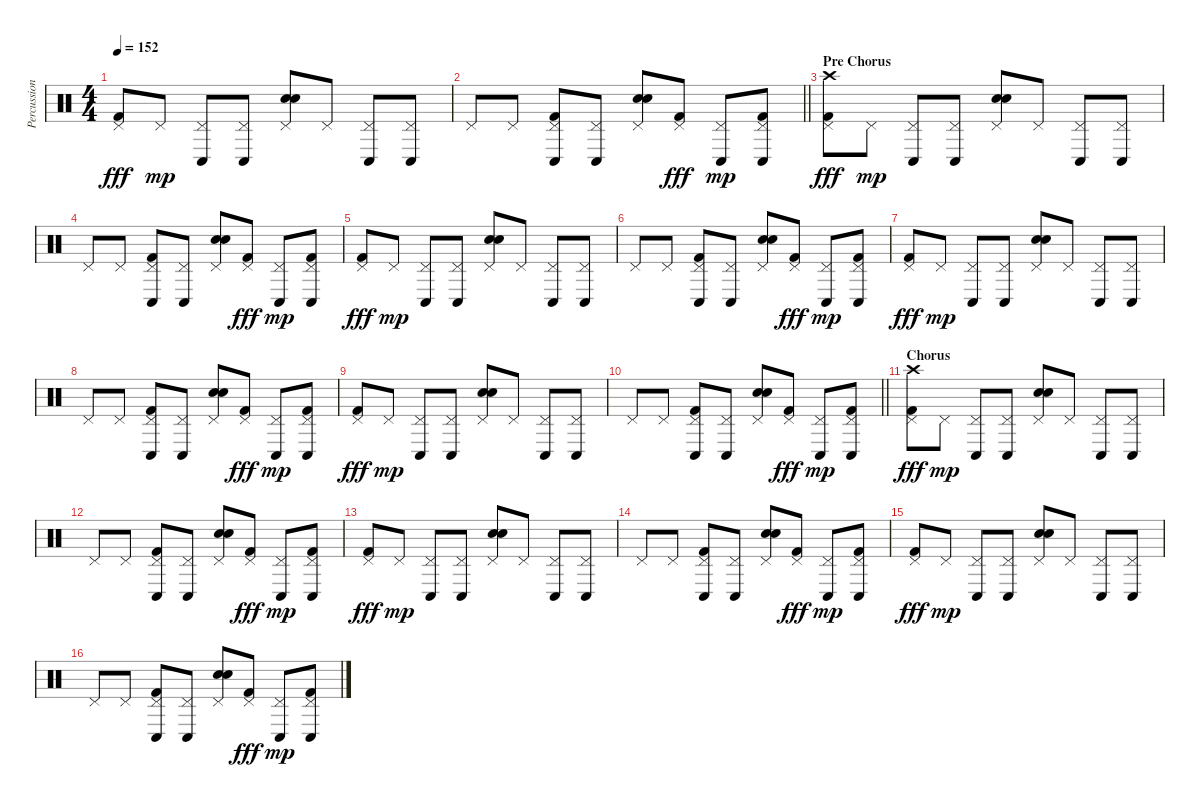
\track ("Percussion" "Percussion") {instrument percussion}
\staff {score}
\articulation defaults
\ts (4 4)
\tempo 152
\clef neutral
\ks c
("Pedal Hi-Hat (hit)" "Kick (hit) 2").8{dy fff} "Pedal Hi-Hat (hit)".8{dy mp} ("Pedal Hi-Hat (hit)" "Conga low (hit)").8 ("Pedal Hi-Hat (hit)" "Conga low (hit)").8 ("Pedal Hi-Hat (hit)" "Electric Snare (hit)" "Hand Clap (hit)").8 "Pedal Hi-Hat (hit)".8 ("Pedal Hi-Hat (hit)" "Conga low (hit)").8 ("Pedal Hi-Hat (hit)" "Conga low (hit)").8 |
\barLineRight lightlight "Pedal Hi-Hat (hit)".8 "Pedal Hi-Hat (hit)".8
("Pedal Hi-Hat (hit)" "Kick (hit) 2" "Conga low (hit)").8 ("Pedal Hi-Hat (hit)" "Conga low (hit)").8 ("Pedal Hi-Hat (hit)" "Electric Snare (hit)" "Hand Clap (hit)").8 ("Pedal Hi-Hat (hit)" "Kick (hit) 2").8{dy fff} ("Pedal Hi-Hat (hit)" "Conga low (hit)").8{dy mp} ("Pedal Hi-Hat (hit)" "Kick (hit) 2" "Conga low (hit)").8 |
\section ("" "Pre Chorus")
("Pedal Hi-Hat (hit)" "Kick (hit) 2" "Crash high (hit)").8{dy fff} "Pedal Hi-Hat (hit)".8{dy mp} ("Pedal Hi-Hat (hit)" "Conga low (hit)").8 ("Pedal Hi-Hat (hit)" "Conga low (hit)").8 ("Pedal Hi-Hat (hit)" "Electric Snare (hit)" "Hand Clap (hit)").8 "Pedal Hi-Hat (hit)".8 ("Pedal Hi-Hat (hit)" "Conga low (hit)").8 ("Pedal Hi-Hat (hit)" "Conga low (hit)").8 |
"Pedal Hi-Hat (hit)".8 "Pedal Hi-Hat (hit)".8 ("Pedal Hi-Hat (hit)" "Kick (hit) 2" "Conga low (hit)").8 ("Pedal Hi-Hat (hit)" "Conga low (hit)").8 ("Pedal Hi-Hat (hit)" "Electric Snare (hit)" "Hand Clap (hit)").8 ("Pedal Hi-Hat (hit)" "Kick (hit) 2").8{dy fff} ("Pedal Hi-Hat (hit)" "Conga low (hit)").8{dy mp} ("Pedal Hi-Hat (hit)" "Kick (hit) 2" "Conga low (hit)").8 |
("Pedal Hi-Hat (hit)" "Kick (hit) 2").8{dy fff} "Pedal Hi-Hat (hit)".8{dy mp} ("Pedal Hi-Hat (hit)" "Conga low (hit)").8 ("Pedal Hi-Hat (hit)" "Conga low (hit)").8 ("Pedal Hi-Hat (hit)" "Electric Snare (hit)" "Hand Clap (hit)").8 "Pedal Hi-Hat (hit)".8 ("Pedal Hi-Hat (hit)" "Conga low (hit)").8 ("Pedal Hi-Hat (hit)" "Conga low (hit)").8 |
"Pedal Hi-Hat (hit)".8 "Pedal Hi-Hat (hit)".8 ("Pedal Hi-Hat (hit)" "Kick (hit) 2" "Conga low (hit)").8 ("Pedal Hi-Hat (hit)" "Conga low (hit)").8 ("Pedal Hi-Hat (hit)" "Electric Snare (hit)" "Hand Clap (hit)").8 ("Pedal Hi-Hat (hit)" "Kick (hit) 2").8{dy fff} ("Pedal Hi-Hat (hit)" "Conga low (hit)").8{dy mp} ("Pedal Hi-Hat (hit)" "Kick (hit) 2" "Conga low (hit)").8 |
("Pedal Hi-Hat (hit)" "Kick (hit) 2").8{dy fff} "Pedal Hi-Hat (hit)".8{dy mp} ("Pedal Hi-Hat (hit)" "Conga low (hit)").8 ("Pedal Hi-Hat (hit)" "Conga low (hit)").8 ("Pedal Hi-Hat (hit)" "Electric Snare (hit)" "Hand Clap (hit)").8 "Pedal Hi-Hat (hit)".8 ("Pedal Hi-Hat (hit)" "Conga low (hit)").8 ("Pedal Hi-Hat (hit)" "Conga low (hit)").8 |
"Pedal Hi-Hat (hit)".8 "Pedal Hi-Hat (hit)".8 ("Pedal Hi-Hat (hit)" "Kick (hit) 2" "Conga low (hit)").8 ("Pedal Hi-Hat (hit)" "Conga low (hit)").8 ("Pedal Hi-Hat (hit)" "Electric Snare (hit)" "Hand Clap (hit)").8 ("Pedal Hi-Hat (hit)" "Kick (hit) 2").8{dy fff} ("Pedal Hi-Hat (hit)" "Conga low (hit)").8{dy mp} ("Pedal Hi-Hat (hit)" "Kick (hit) 2" "Conga low (hit)").8 |
("Pedal Hi-Hat (hit)" "Kick (hit) 2").8{dy fff} "Pedal Hi-Hat (hit)".8{dy mp} ("Pedal Hi-Hat (hit)" "Conga low (hit)").8 ("Pedal Hi-Hat (hit)" "Conga low (hit)").8 ("Pedal Hi-Hat (hit)" "Electric Snare (hit)" "Hand Clap (hit)").8 "Pedal Hi-Hat (hit)".8 ("Pedal Hi-Hat (hit)" "Conga low (hit)").8 ("Pedal Hi-Hat (hit)" "Conga low (hit)").8 |
\barLineRight lightlight "Pedal Hi-Hat (hit)".8 "Pedal Hi-Hat (hit)".8
("Pedal Hi-Hat (hit)" "Kick (hit) 2" "Conga low (hit)").8 ("Pedal Hi-Hat (hit)" "Conga low (hit)").8 ("Pedal Hi-Hat (hit)" "Electric Snare (hit)" "Hand Clap (hit)").8 ("Pedal Hi-Hat (hit)" "Kick (hit) 2").8{dy fff} ("Pedal Hi-Hat (hit)" "Conga low (hit)").8{dy mp} ("Pedal Hi-Hat (hit)" "Kick (hit) 2" "Conga low (hit)").8 |
\section ("" "Chorus")
("Pedal Hi-Hat (hit)" "Kick (hit) 2" "Crash high (hit)").8{dy fff} "Pedal Hi-Hat (hit)".8{dy mp} ("Pedal Hi-Hat (hit)" "Conga low (hit)").8 ("Pedal Hi-Hat (hit)" "Conga low (hit)").8 ("Pedal Hi-Hat (hit)" "Electric Snare (hit)" "Hand Clap (hit)").8 "Pedal Hi-Hat (hit)".8 ("Pedal Hi-Hat (hit)" "Conga low (hit)").8 ("Pedal Hi-Hat (hit)" "Conga low (hit)").8 |
"Pedal Hi-Hat (hit)".8 "Pedal Hi-Hat (hit)".8 ("Pedal Hi-Hat (hit)" "Kick (hit) 2" "Conga low (hit)").8 ("Pedal Hi-Hat (hit)" "Conga low (hit)").8 ("Pedal Hi-Hat (hit)" "Electric Snare (hit)" "Hand Clap (hit)").8 ("Pedal Hi-Hat (hit)" "Kick (hit) 2").8{dy fff} ("Pedal Hi-Hat (hit)" "Conga low (hit)").8{dy mp} ("Pedal Hi-Hat (hit)" "Kick (hit) 2" "Conga low (hit)").8 |
("Pedal Hi-Hat (hit)" "Kick (hit) 2").8{dy fff} "Pedal Hi-Hat (hit)".8{dy mp} ("Pedal Hi-Hat (hit)" "Conga low (hit)").8 ("Pedal Hi-Hat (hit)" "Conga low (hit)").8 ("Pedal Hi-Hat (hit)" "Electric Snare (hit)" "Hand Clap (hit)").8 "Pedal Hi-Hat (hit)".8 ("Pedal Hi-Hat (hit)" "Conga low (hit)").8 ("Pedal Hi-Hat (hit)" "Conga low (hit)").8 |
"Pedal Hi-Hat (hit)".8 "Pedal Hi-Hat (hit)".8 ("Pedal Hi-Hat (hit)" "Kick (hit) 2" "Conga low (hit)").8 ("Pedal Hi-Hat (hit)" "Conga low (hit)").8 ("Pedal Hi-Hat (hit)" "Electric Snare (hit)" "Hand Clap (hit)").8 ("Pedal Hi-Hat (hit)" "Kick (hit) 2").8{dy fff} ("Pedal Hi-Hat (hit)" "Conga low (hit)").8{dy mp} ("Pedal Hi-Hat (hit)" "Kick (hit) 2" "Conga low (hit)").8 |
("Pedal Hi-Hat (hit)" "Kick (hit) 2").8{dy fff} "Pedal Hi-Hat (hit)".8{dy mp} ("Pedal Hi-Hat (hit)" "Conga low (hit)").8 ("Pedal Hi-Hat (hit)" "Conga low (hit)").8 ("Pedal Hi-Hat (hit)" "Electric Snare (hit)" "Hand Clap (hit)").8 "Pedal Hi-Hat (hit)".8 ("Pedal Hi-Hat (hit)" "Conga low (hit)").8 ("Pedal Hi-Hat (hit)" "Conga low (hit)").8 |
"Pedal Hi-Hat (hit)".8 "Pedal Hi-Hat (hit)".8 ("Pedal Hi-Hat (hit)" "Kick (hit) 2" "Conga low (hit)").8 ("Pedal Hi-Hat (hit)" "Conga low (hit)").8 ("Pedal Hi-Hat (hit)" "Electric Snare (hit)" "Hand Clap (hit)").8 ("Pedal Hi-Hat (hit)" "Kick (hit) 2").8{dy fff} ("Pedal Hi-Hat (hit)" "Conga low (hit)").8{dy mp} ("Pedal Hi-Hat (hit)" "Kick (hit) 2" "Conga low (hit)").8
